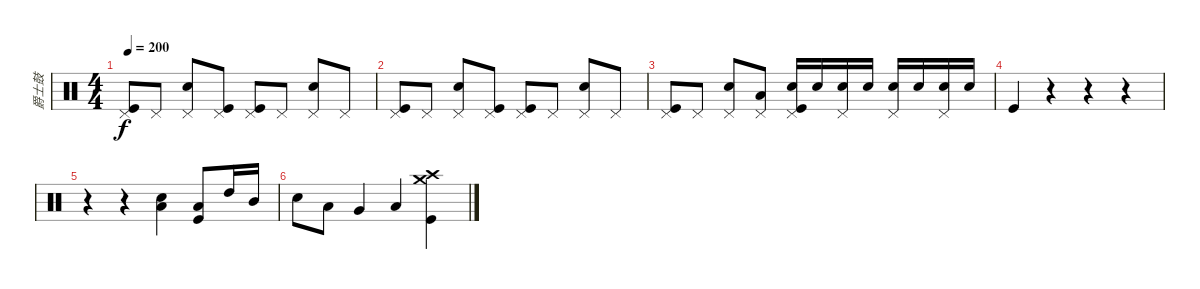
\track ("爵士鼓" "爵士鼓") {instrument percussion}
\staff {score}
\articulation defaults
\ts (4 4)
\tempo 200
\clef neutral
\ks c
("Pedal Hi-Hat (hit)" "Kick (hit)").8{dy f} "Pedal Hi-Hat (hit)".8 ("Pedal Hi-Hat (hit)" "Electric Snare (hit)").8 ("Pedal Hi-Hat (hit)" "Kick (hit)").8 ("Pedal Hi-Hat (hit)" "Kick (hit)").8 "Pedal Hi-Hat (hit)".8 ("Pedal Hi-Hat (hit)" "Electric Snare (hit)").8 "Pedal Hi-Hat (hit)".8 |
("Pedal Hi-Hat (hit)" "Kick (hit)").8 "Pedal Hi-Hat (hit)".8 ("Pedal Hi-Hat (hit)" "Electric Snare (hit)").8 ("Pedal Hi-Hat (hit)" "Kick (hit)").8 ("Pedal Hi-Hat (hit)" "Kick (hit)").8 "Pedal Hi-Hat (hit)".8 ("Pedal Hi-Hat (hit)" "Electric Snare (hit)").8 "Pedal Hi-Hat (hit)".8 |
("Pedal Hi-Hat (hit)" "Kick (hit)").8 "Pedal Hi-Hat (hit)".8 ("Pedal Hi-Hat (hit)" "Electric Snare (hit)").8 ("Pedal Hi-Hat (hit)" "Low Floor Tom (hit)").8 ("Pedal Hi-Hat (hit)" "Snare (hit) 2" "Kick (hit)").16 "Snare (hit) 2".16 ("Pedal Hi-Hat (hit)" "Snare (hit) 2").16 "Snare (hit) 2".16 ("Pedal Hi-Hat (hit)" "Snare (hit) 2").16 "Snare (hit) 2".16 ("Pedal Hi-Hat (hit)" "Snare (hit) 2").16 "Snare (hit) 2".16 |
"Kick (hit)".4 r.4 r.4 r.4 |
r.4 r.4 ("Electric Snare (hit)" "Low Floor Tom (hit)").4 ("Low Floor Tom (hit)" "Kick (hit)").8 "High Tom (hit)".16 "Mid Tom (hit)".16 |
"Snare (hit) 2".8 "Low Tom (hit)".8 "Very Low Tom (hit)".4 "Low Floor Tom (hit)".4 ("Crash high (hit)" "Crash medium (hit)" "Kick (hit)").4
